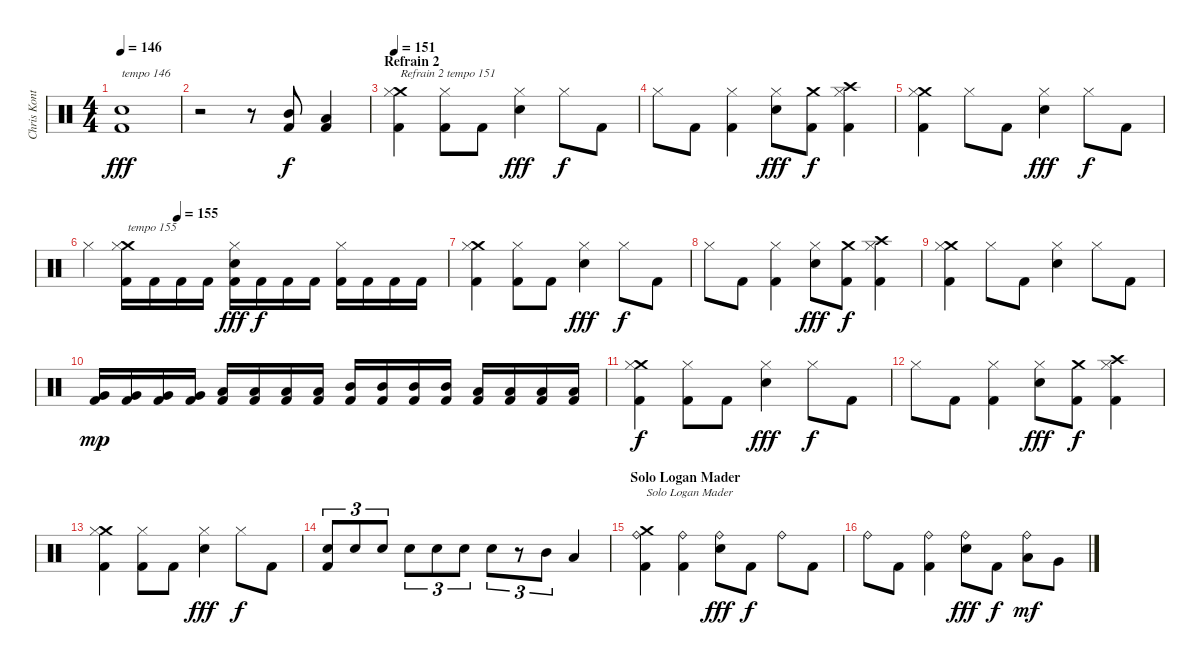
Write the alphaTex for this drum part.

\track ("Chris Kontos" "Chris Kont") {instrument percussion}
\staff {score}
\articulation defaults
\ts (4 4)
\tempo 146
\clef neutral
\ks c
("Electric Snare (hit)" "Kick (hit) 2").1{txt "tempo 146" dy fff} |
r.2 r.8 ("Mid Tom (hit)" "Kick (hit) 2").8{dy f} ("Low Tom (hit)" "Kick (hit) 2").4 |
\section ("" "Refrain 2")
\tempo 151
("Crash medium (hit)" "Hi-Hat (closed)" "Kick (hit) 2").4{txt "Refrain 2 tempo 151"} ("Hi-Hat (closed)" "Kick (hit) 2").8 "Kick (hit) 2".8 ("Electric Snare (hit)" "Hi-Hat (closed)").4{dy fff} "Hi-Hat (closed)".8{dy f} "Kick (hit) 2".8 |
"Hi-Hat (closed)".8 "Kick (hit) 2".8 ("Hi-Hat (closed)" "Kick (hit) 2").4 ("Electric Snare (hit)" "Hi-Hat (closed)").8{dy fff} ("Crash medium (hit)" "Kick (hit) 2").8{dy f} ("Crash high (hit)" "Hi-Hat (closed)" "Kick (hit) 2").4 |
("Crash medium (hit)" "Hi-Hat (closed)" "Kick (hit) 2").4 "Hi-Hat (closed)".8 "Kick (hit) 2".8 ("Electric Snare (hit)" "Hi-Hat (closed)").4{dy fff} "Hi-Hat (closed)".8{dy f} "Kick (hit) 2".8 |
\tempo (155 0.25)
"Hi-Hat (closed)".4 ("Crash medium (hit)" "Hi-Hat (closed)" "Kick (hit) 2").16{txt "tempo 155"} "Kick (hit) 2".16 "Kick (hit) 2".16 "Kick (hit) 2".16 ("Electric Snare (hit)" "Hi-Hat (closed)" "Kick (hit) 2").16{dy fff} "Kick (hit) 2".16{dy f} "Kick (hit) 2".16 "Kick (hit) 2".16 ("Hi-Hat (closed)" "Kick (hit) 2").16 "Kick (hit) 2".16 "Kick (hit) 2".16 "Kick (hit) 2".16 |
("Crash medium (hit)" "Hi-Hat (closed)" "Kick (hit) 2").4 ("Hi-Hat (closed)" "Kick (hit) 2").8 "Kick (hit) 2".8 ("Electric Snare (hit)" "Hi-Hat (closed)").4{dy fff} "Hi-Hat (closed)".8{dy f} "Kick (hit) 2".8 |
"Hi-Hat (closed)".8 "Kick (hit) 2".8 ("Hi-Hat (closed)" "Kick (hit) 2").4 ("Electric Snare (hit)" "Hi-Hat (closed)").8{dy fff} ("Crash medium (hit)" "Kick (hit) 2").8{dy f} ("Crash high (hit)" "Hi-Hat (closed)" "Kick (hit) 2").4 |
("Crash medium (hit)" "Hi-Hat (closed)" "Kick (hit) 2").4 "Hi-Hat (closed)".8 "Kick (hit) 2".8 ("Electric Snare (hit)" "Hi-Hat (closed)").4 "Hi-Hat (closed)".8 "Kick (hit) 2".8 |
("Very Low Tom (hit)" "Kick (hit) 2").16{dy mp} ("Very Low Tom (hit)" "Kick (hit) 2").16 ("Very Low Tom (hit)" "Kick (hit) 2").16 ("Very Low Tom (hit)" "Kick (hit) 2").16 ("Low Tom (hit)" "Kick (hit) 2").16 ("Low Tom (hit)" "Kick (hit) 2").16 ("Low Tom (hit)" "Kick (hit) 2").16 ("Low Tom (hit)" "Kick (hit) 2").16 ("Mid Tom (hit)" "Kick (hit) 2").16 ("Mid Tom (hit)" "Kick (hit) 2").16 ("Mid Tom (hit)" "Kick (hit) 2").16 ("Mid Tom (hit)" "Kick (hit) 2").16 ("Low Tom (hit)" "Kick (hit) 2").16 ("Low Tom (hit)" "Kick (hit) 2").16 ("Low Tom (hit)" "Kick (hit) 2").16 ("Low Tom (hit)" "Kick (hit) 2").16 |
("Crash medium (hit)" "Hi-Hat (closed)" "Kick (hit) 2").4{dy f} ("Hi-Hat (closed)" "Kick (hit) 2").8 "Kick (hit) 2".8 ("Electric Snare (hit)" "Hi-Hat (closed)").4{dy fff} "Hi-Hat (closed)".8{dy f} "Kick (hit) 2".8 |
"Hi-Hat (closed)".8 "Kick (hit) 2".8 ("Hi-Hat (closed)" "Kick (hit) 2").4 ("Electric Snare (hit)" "Hi-Hat (closed)").8{dy fff} ("Crash medium (hit)" "Kick (hit) 2").8{dy f} ("Crash high (hit)" "Hi-Hat (closed)" "Kick (hit) 2").4 |
("Crash medium (hit)" "Hi-Hat (closed)" "Kick (hit) 2").4 ("Hi-Hat (closed)" "Kick (hit) 2").8 "Kick (hit) 2".8 ("Electric Snare (hit)" "Hi-Hat (closed)").4{dy fff} "Hi-Hat (closed)".8{dy f} "Kick (hit) 2".8 |
("Electric Snare (hit)" "Kick (hit) 2").8{tu (3 2)} "Electric Snare (hit)".8{tu (3 2)} "Electric Snare (hit)".8{tu (3 2)} "Electric Snare (hit)".8{tu (3 2)} "Electric Snare (hit)".8{tu (3 2)} "Electric Snare (hit)".8{tu (3 2)} "Electric Snare (hit)".8{tu (3 2)} r.8{tu (3 2)} "Mid Tom (hit)".8{tu (3 2)} "Low Tom (hit)".4 |
\section ("" "Solo Logan Mader")
("Crash medium (hit)" "Ride (bell)" "Kick (hit) 2").4{txt "Solo Logan Mader"} ("Ride (bell)" "Kick (hit) 2").4 ("Electric Snare (hit)" "Ride (bell)").8{dy fff} "Kick (hit) 2".8{dy f} "Ride (bell)".8 "Kick (hit) 2".8 |
"Ride (bell)".8 "Kick (hit) 2".8 ("Ride (bell)" "Kick (hit) 2").4 ("Electric Snare (hit)" "Ride (bell)").8{dy fff} "Kick (hit) 2".8{dy f} ("Low Tom (hit)" "Ride (bell)").8{dy mf} "Very Low Tom (hit)".8
